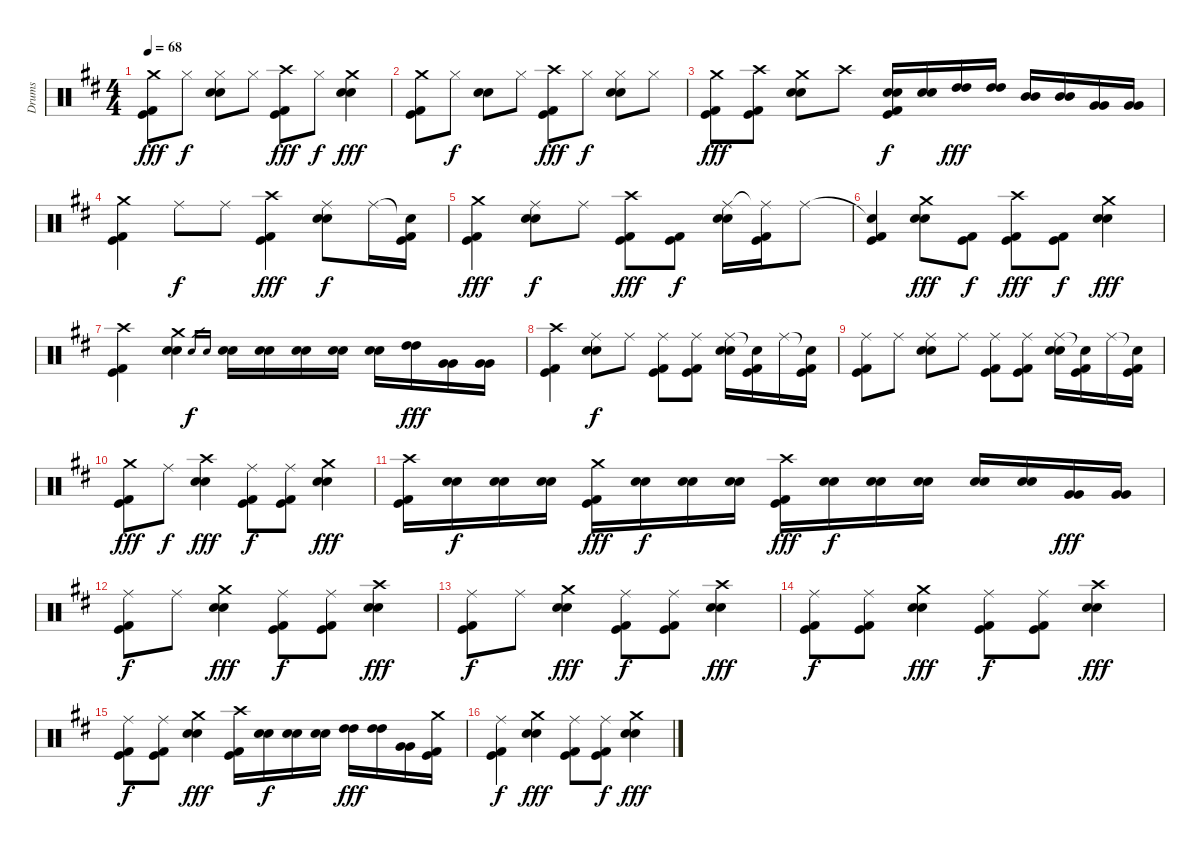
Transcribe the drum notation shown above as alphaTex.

\track ("Drums" "Drums") {instrument percussion}
\staff {score}
\articulation defaults
\ts (4 4)
\tempo 68
\clef neutral
\ks d
("Crash medium (hit)" "Kick (hit)" "Kick (hit) 2").8{dy fff} "Hi-Hat (closed)".8{dy f} ("Hi-Hat (closed)" "Electric Snare (hit)" "Snare (hit) 2").8 "Hi-Hat (closed)".8 ("Crash high (hit)" "Kick (hit)" "Kick (hit) 2").8{dy fff} "Hi-Hat (closed)".8{dy f} ("Crash medium (hit)" "Electric Snare (hit)" "Snare (hit) 2").4{dy fff} |
("Crash medium (hit)" "Kick (hit)" "Kick (hit) 2").8 "Hi-Hat (closed)".8{dy f} ("Electric Snare (hit)" "Snare (hit) 2").8 "Hi-Hat (closed)".8 ("Crash high (hit)" "Kick (hit)" "Kick (hit) 2").8{dy fff} "Hi-Hat (closed)".8{dy f} ("Hi-Hat (closed)" "Electric Snare (hit)" "Snare (hit) 2").8 "Hi-Hat (closed)".8 |
("Crash medium (hit)" "Kick (hit)" "Kick (hit) 2").8{dy fff} ("Crash high (hit)" "Kick (hit)" "Kick (hit) 2").8 ("Crash medium (hit)" "Electric Snare (hit)" "Snare (hit) 2").8 "Crash high (hit)".8 ("Electric Snare (hit)" "Snare (hit) 2" "Kick (hit)" "Kick (hit) 2").16{dy f} ("Electric Snare (hit)" "Snare (hit) 2").16 ("High Tom (hit)" "High Tom (hit)").16{dy fff} ("High Tom (hit)" "High Tom (hit)").16 ("Mid Tom (hit)" "Mid Tom (hit)").16 ("Mid Tom (hit)" "Mid Tom (hit)").16 ("Very Low Tom (hit)" "Very Low Tom (hit)").16 ("Very Low Tom (hit)" "Very Low Tom (hit)").16 |
("Crash medium (hit)" "Kick (hit)" "Kick (hit) 2").4 "Ride (middle)".8{dy f} "Ride (middle)".8 ("Crash high (hit)" "Kick (hit)" "Kick (hit) 2").4{dy fff} ("Ride (middle)" "Electric Snare (hit)" "Snare (hit) 2").8{dy f} "Ride (middle)".16 ("Snare (hit)"{t} "Kick (hit)" "Kick (hit) 2").16 |
("Crash medium (hit)" "Kick (hit)" "Kick (hit) 2").4{dy fff} ("Ride (middle)" "Electric Snare (hit)" "Snare (hit) 2").8{dy f} "Ride (middle)".8 ("Crash high (hit)" "Kick (hit)" "Kick (hit) 2").8{dy fff} ("Kick (hit)" "Kick (hit) 2").8{dy f} ("Ride (middle)" "Electric Snare (hit)" "Snare (hit) 2").16 ("Ride (middle)"{t} "Kick (hit)" "Kick (hit) 2").16 "Ride (middle)".8 |
("Snare (hit)"{t} "Kick (hit)" "Kick (hit) 2").4 ("Crash medium (hit)" "Electric Snare (hit)" "Snare (hit) 2").8{dy fff} ("Kick (hit)" "Kick (hit) 2").8{dy f} ("Crash high (hit)" "Kick (hit)" "Kick (hit) 2").8{dy fff} ("Kick (hit)" "Kick (hit) 2").8{dy f} ("Crash medium (hit)" "Electric Snare (hit)" "Snare (hit) 2").4{dy fff} |
("Crash high (hit)" "Kick (hit)" "Kick (hit) 2").4 ("Crash medium (hit)" "Electric Snare (hit)" "Snare (hit) 2").4 "Electric Snare (hit)".16{gr dy f} "Snare (hit) 2".16{gr} ("Electric Snare (hit)" "Snare (hit) 2").16 ("Electric Snare (hit)" "Snare (hit) 2").16 ("Electric Snare (hit)" "Snare (hit) 2").16 ("Electric Snare (hit)" "Snare (hit) 2").16 ("Electric Snare (hit)" "Snare (hit) 2").16 ("High Tom (hit)" "High Tom (hit)").16{dy fff} ("Very Low Tom (hit)" "Very Low Tom (hit)").16 ("Very Low Tom (hit)" "Very Low Tom (hit)").16 |
("Crash high (hit)" "Kick (hit)" "Kick (hit) 2").4 ("Ride (middle)" "Electric Snare (hit)" "Snare (hit) 2").8{dy f} "Ride (middle)".8 ("Ride (middle)" "Kick (hit)" "Kick (hit) 2").8 ("Ride (middle)" "Kick (hit)" "Kick (hit) 2").8 ("Ride (middle)" "Electric Snare (hit)" "Snare (hit) 2").16 ("Snare (hit)"{t} "Kick (hit)" "Kick (hit) 2").16 "Ride (middle)".16 ("Snare (hit)"{t} "Kick (hit)" "Kick (hit) 2").16 |
("Ride (middle)" "Kick (hit)" "Kick (hit) 2").8 "Ride (middle)".8 ("Ride (middle)" "Electric Snare (hit)" "Snare (hit) 2").8 "Ride (middle)".8 ("Ride (middle)" "Kick (hit)" "Kick (hit) 2").8 ("Ride (middle)" "Kick (hit)" "Kick (hit) 2").8 ("Ride (middle)" "Electric Snare (hit)" "Snare (hit) 2").16 ("Snare (hit)"{t} "Kick (hit)" "Kick (hit) 2").16 "Ride (middle)".16 ("Snare (hit)"{t} "Kick (hit)" "Kick (hit) 2").16 |
("Crash medium (hit)" "Kick (hit)" "Kick (hit) 2").8{dy fff} "Ride (middle)".8{dy f} ("Crash high (hit)" "Electric Snare (hit)" "Snare (hit) 2").4{dy fff} ("Ride (middle)" "Kick (hit)" "Kick (hit) 2").8{dy f} ("Ride (middle)" "Kick (hit)" "Kick (hit) 2").8 ("Crash medium (hit)" "Electric Snare (hit)" "Snare (hit) 2").4{dy fff} |
("Crash high (hit)" "Kick (hit)" "Kick (hit) 2").16 ("Electric Snare (hit)" "Snare (hit) 2").16{dy f} ("Electric Snare (hit)" "Snare (hit) 2").16 ("Electric Snare (hit)" "Snare (hit) 2").16 ("Crash medium (hit)" "Kick (hit)" "Kick (hit) 2").16{dy fff} ("Electric Snare (hit)" "Snare (hit) 2").16{dy f} ("Electric Snare (hit)" "Snare (hit) 2").16 ("Electric Snare (hit)" "Snare (hit) 2").16 ("Crash high (hit)" "Kick (hit)" "Kick (hit) 2").16{dy fff} ("Electric Snare (hit)" "Snare (hit) 2").16{dy f} ("Electric Snare (hit)" "Snare (hit) 2").16 ("Electric Snare (hit)" "Snare (hit) 2").16 ("Electric Snare (hit)" "Snare (hit) 2").16 ("Electric Snare (hit)" "Snare (hit) 2").16 ("Very Low Tom (hit)" "Very Low Tom (hit)").16{dy fff} ("Very Low Tom (hit)" "Very Low Tom (hit)").16 |
("Ride (middle)" "Kick (hit)" "Kick (hit) 2").8{dy f} "Ride (middle)".8 ("Crash medium (hit)" "Electric Snare (hit)" "Snare (hit) 2").4{dy fff} ("Ride (middle)" "Kick (hit)" "Kick (hit) 2").8{dy f} ("Ride (middle)" "Kick (hit)" "Kick (hit) 2").8 ("Crash high (hit)" "Electric Snare (hit)" "Snare (hit) 2").4{dy fff} |
("Ride (middle)" "Kick (hit)" "Kick (hit) 2").8{dy f} "Ride (middle)".8 ("Crash medium (hit)" "Electric Snare (hit)" "Snare (hit) 2").4{dy fff} ("Ride (middle)" "Kick (hit)" "Kick (hit) 2").8{dy f} ("Ride (middle)" "Kick (hit)" "Kick (hit) 2").8 ("Crash high (hit)" "Electric Snare (hit)" "Snare (hit) 2").4{dy fff} |
("Ride (middle)" "Kick (hit)" "Kick (hit) 2").8{dy f} ("Ride (middle)" "Kick (hit)" "Kick (hit) 2").8 ("Crash medium (hit)" "Electric Snare (hit)" "Snare (hit) 2").4{dy fff} ("Ride (middle)" "Kick (hit)" "Kick (hit) 2").8{dy f} ("Ride (middle)" "Kick (hit)" "Kick (hit) 2").8 ("Crash high (hit)" "Electric Snare (hit)" "Snare (hit) 2").4{dy fff} |
("Ride (middle)" "Kick (hit)" "Kick (hit) 2").8{dy f} ("Ride (middle)" "Kick (hit)" "Kick (hit) 2").8 ("Crash medium (hit)" "Electric Snare (hit)" "Snare (hit) 2").4{dy fff} ("Crash high (hit)" "Kick (hit)" "Kick (hit) 2").16 ("Electric Snare (hit)" "Snare (hit) 2").16{dy f} ("Electric Snare (hit)" "Snare (hit) 2").16 ("Electric Snare (hit)" "Snare (hit) 2").16 ("High Tom (hit)" "High Tom (hit)").16{dy fff} ("High Tom (hit)" "High Tom (hit)").16 ("Very Low Tom (hit)" "Very Low Tom (hit)").16 ("Crash medium (hit)" "Kick (hit)" "Kick (hit) 2").16 |
("Ride (middle)" "Kick (hit)" "Kick (hit) 2").4{dy f} ("Crash medium (hit)" "Electric Snare (hit)" "Snare (hit) 2").4{dy fff} ("Ride (middle)" "Kick (hit)" "Kick (hit) 2").8 ("Ride (middle)" "Kick (hit)" "Kick (hit) 2").8{dy f} ("Crash medium (hit)" "Electric Snare (hit)" "Snare (hit) 2").4{dy fff}
